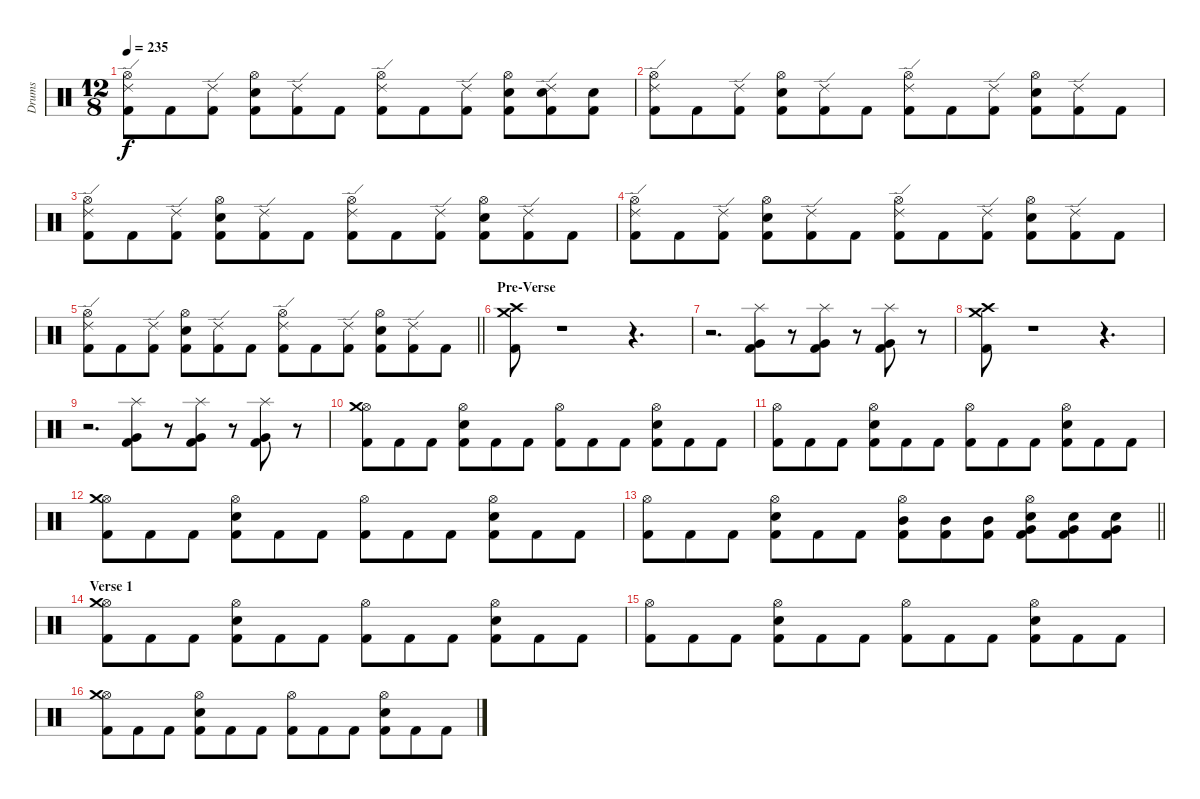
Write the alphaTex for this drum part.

\track ("Drums" "Drums") {instrument percussion}
\staff {score}
\articulation defaults
\ts (12 8)
\tempo 235
\clef neutral
\ks c
("Hi-Hat (open)" "Ride (edge) 2" "Kick (hit) 2").8{dy f} "Kick (hit) 2".8 ("Ride (edge) 2" "Kick (hit) 2").8 ("Snare (hit) 2" "Kick (hit) 2" "Hi-Hat (open)").8 ("Kick (hit) 2" "Ride (edge) 2").8 "Kick (hit) 2".8 ("Hi-Hat (open)" "Ride (edge) 2" "Kick (hit) 2").8 "Kick (hit) 2".8 ("Ride (edge) 2" "Kick (hit) 2").8 ("Snare (hit) 2" "Kick (hit) 2" "Hi-Hat (open)").8 ("Kick (hit) 2" "Ride (edge) 2" "Snare (hit) 2").8 ("Snare (hit) 2" "Kick (hit) 2").8 |
("Hi-Hat (open)" "Kick (hit) 2" "Ride (edge) 2").8 "Kick (hit) 2".8 ("Ride (edge) 2" "Kick (hit) 2").8 ("Hi-Hat (open)" "Kick (hit) 2" "Snare (hit) 2").8 ("Kick (hit) 2" "Ride (edge) 2").8 "Kick (hit) 2".8 ("Ride (edge) 2" "Hi-Hat (open)" "Kick (hit) 2").8 "Kick (hit) 2".8 ("Ride (edge) 2" "Kick (hit) 2").8 ("Snare (hit) 2" "Kick (hit) 2" "Hi-Hat (open)").8 ("Ride (edge) 2" "Kick (hit) 2").8 "Kick (hit) 2".8 |
("Hi-Hat (open)" "Ride (edge) 2" "Kick (hit) 2").8 "Kick (hit) 2".8 ("Ride (edge) 2" "Kick (hit) 2").8 ("Hi-Hat (open)" "Kick (hit) 2" "Snare (hit) 2").8 ("Kick (hit) 2" "Ride (edge) 2").8 "Kick (hit) 2".8 ("Kick (hit) 2" "Ride (edge) 2" "Hi-Hat (open)").8 "Kick (hit) 2".8 ("Kick (hit) 2" "Ride (edge) 2").8 ("Snare (hit) 2" "Kick (hit) 2" "Hi-Hat (open)").8 ("Kick (hit) 2" "Ride (edge) 2").8 "Kick (hit) 2".8 |
("Hi-Hat (open)" "Kick (hit) 2" "Ride (edge) 2").8 "Kick (hit) 2".8 ("Ride (edge) 2" "Kick (hit) 2").8 ("Hi-Hat (open)" "Kick (hit) 2" "Snare (hit) 2").8 ("Kick (hit) 2" "Ride (edge) 2").8 "Kick (hit) 2".8 ("Ride (edge) 2" "Hi-Hat (open)" "Kick (hit) 2").8 "Kick (hit) 2".8 ("Ride (edge) 2" "Kick (hit) 2").8 ("Snare (hit) 2" "Kick (hit) 2" "Hi-Hat (open)").8 ("Ride (edge) 2" "Kick (hit) 2").8 "Kick (hit) 2".8 |
\barLineRight lightlight
("Hi-Hat (open)" "Ride (edge) 2" "Kick (hit) 2").8 "Kick (hit) 2".8 ("Ride (edge) 2" "Kick (hit) 2").8 ("Hi-Hat (open)" "Kick (hit) 2" "Snare (hit) 2").8 ("Kick (hit) 2" "Ride (edge) 2").8 "Kick (hit) 2".8 ("Kick (hit) 2" "Ride (edge) 2" "Hi-Hat (open)").8 "Kick (hit) 2".8 ("Kick (hit) 2" "Ride (edge) 2").8 ("Snare (hit) 2" "Kick (hit) 2" "Hi-Hat (open)").8 ("Kick (hit) 2" "Ride (edge) 2").8 "Kick (hit) 2".8 |
\section ("" "Pre-Verse")
("Crash high (hit)" "Crash medium (hit)" "Kick (hit) 2").8 r.1 r.4{d} |
r.2{d} ("Very Low Tom (hit)" "Kick (hit) 2" "Splash (hit)").8 r.8 ("Kick (hit) 2" "Very Low Tom (hit)" "Splash (hit)").8 r.8 ("Very Low Tom (hit)" "Kick (hit) 2" "Splash (hit)").8 r.8 |
("Kick (hit) 2" "Crash high (hit)" "Crash medium (hit)").8 r.1 r.4{d} |
r.2{d} ("Splash (hit)" "Very Low Tom (hit)" "Kick (hit) 2").8 r.8 ("Kick (hit) 2" "Very Low Tom (hit)" "Splash (hit)").8 r.8 ("Very Low Tom (hit)" "Kick (hit) 2" "Splash (hit)").8 r.8 |
("Kick (hit) 2" "Hi-Hat (open)" "Crash medium (hit)").8 "Kick (hit) 2".8 "Kick (hit) 2".8 ("Snare (hit) 2" "Hi-Hat (open)" "Kick (hit) 2").8 "Kick (hit) 2".8 "Kick (hit) 2".8 ("Hi-Hat (open)" "Kick (hit) 2").8 "Kick (hit) 2".8 "Kick (hit) 2".8 ("Kick (hit) 2" "Snare (hit) 2" "Hi-Hat (open)").8 "Kick (hit) 2".8 "Kick (hit) 2".8 |
("Hi-Hat (open)" "Kick (hit) 2").8 "Kick (hit) 2".8 "Kick (hit) 2".8 ("Snare (hit) 2" "Kick (hit) 2" "Hi-Hat (open)").8 "Kick (hit) 2".8 "Kick (hit) 2".8 ("Hi-Hat (open)" "Kick (hit) 2").8 "Kick (hit) 2".8 "Kick (hit) 2".8 ("Hi-Hat (open)" "Kick (hit) 2" "Snare (hit) 2").8 "Kick (hit) 2".8 "Kick (hit) 2".8 |
("Hi-Hat (open)" "Kick (hit) 2" "Crash medium (hit)").8 "Kick (hit) 2".8 "Kick (hit) 2".8 ("Kick (hit) 2" "Snare (hit) 2" "Hi-Hat (open)").8 "Kick (hit) 2".8 "Kick (hit) 2".8 ("Kick (hit) 2" "Hi-Hat (open)").8 "Kick (hit) 2".8 "Kick (hit) 2".8 ("Snare (hit) 2" "Kick (hit) 2" "Hi-Hat (open)").8 "Kick (hit) 2".8 "Kick (hit) 2".8 |
\barLineRight lightlight
("Kick (hit) 2" "Hi-Hat (open)").8 "Kick (hit) 2".8 "Kick (hit) 2".8 ("Hi-Hat (open)" "Kick (hit) 2" "Snare (hit) 2").8 "Kick (hit) 2".8 "Kick (hit) 2".8 ("Kick (hit) 2" "Hi-Hat (open)" "Mid Tom (hit)").8 ("Kick (hit) 2" "Mid Tom (hit)").8 ("Kick (hit) 2" "Mid Tom (hit)").8 ("Kick (hit) 2" "Hi-Hat (open)" "Very Low Tom (hit)" "Snare (hit) 2").8 ("Kick (hit) 2" "Very Low Tom (hit)" "Snare (hit) 2").8 ("Kick (hit) 2" "Very Low Tom (hit)" "Snare (hit) 2").8 |
\section ("" "Verse 1")
("Kick (hit) 2" "Hi-Hat (open)" "Crash medium (hit)").8 "Kick (hit) 2".8 "Kick (hit) 2".8 ("Snare (hit) 2" "Hi-Hat (open)" "Kick (hit) 2").8 "Kick (hit) 2".8 "Kick (hit) 2".8 ("Hi-Hat (open)" "Kick (hit) 2").8 "Kick (hit) 2".8 "Kick (hit) 2".8 ("Kick (hit) 2" "Snare (hit) 2" "Hi-Hat (open)").8 "Kick (hit) 2".8 "Kick (hit) 2".8 |
("Hi-Hat (open)" "Kick (hit) 2").8 "Kick (hit) 2".8 "Kick (hit) 2".8 ("Snare (hit) 2" "Kick (hit) 2" "Hi-Hat (open)").8 "Kick (hit) 2".8 "Kick (hit) 2".8 ("Hi-Hat (open)" "Kick (hit) 2").8 "Kick (hit) 2".8 "Kick (hit) 2".8 ("Hi-Hat (open)" "Kick (hit) 2" "Snare (hit) 2").8 "Kick (hit) 2".8 "Kick (hit) 2".8 |
("Hi-Hat (open)" "Kick (hit) 2" "Crash medium (hit)").8 "Kick (hit) 2".8 "Kick (hit) 2".8 ("Kick (hit) 2" "Snare (hit) 2" "Hi-Hat (open)").8 "Kick (hit) 2".8 "Kick (hit) 2".8 ("Kick (hit) 2" "Hi-Hat (open)").8 "Kick (hit) 2".8 "Kick (hit) 2".8 ("Snare (hit) 2" "Kick (hit) 2" "Hi-Hat (open)").8 "Kick (hit) 2".8 "Kick (hit) 2".8
